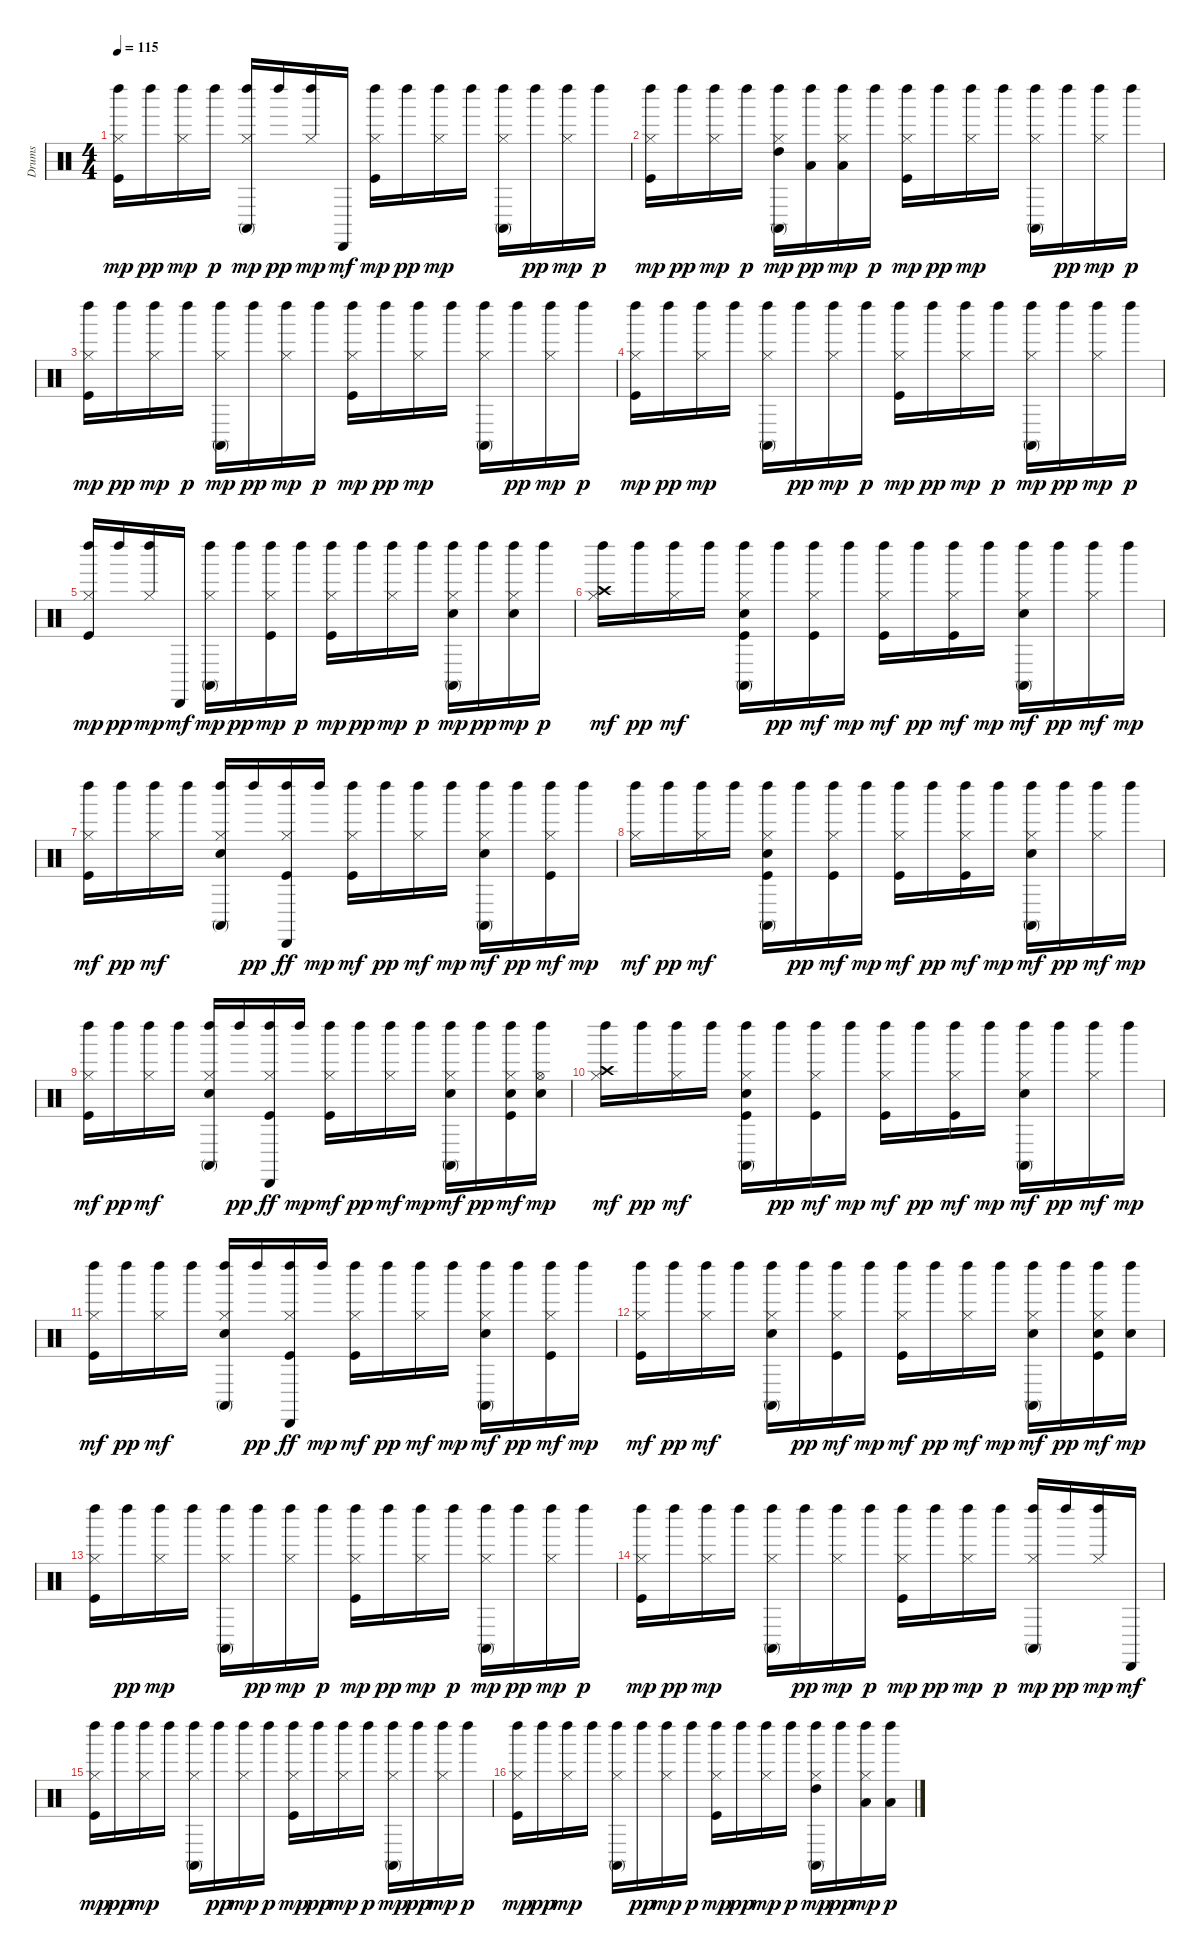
\track ("Drums" "Drums") {instrument percussion}
\staff {score}
\articulation defaults
\ts (4 4)
\tempo 115
\clef neutral
\ks c
("Kick (hit)" "Hi-Hat (closed)" "Left Maraca (hit)").16{dy mp} "Left Maraca (hit)".16{dy pp} ("Hi-Hat (closed)" "Left Maraca (hit)").16{dy mp} "Left Maraca (hit)".16{dy p} ("Hi-Hat (closed)" "Conga high (mute)" "Left Maraca (hit)").16{dy mp} "Left Maraca (hit)".16{dy pp} ("Hi-Hat (closed)" "Left Maraca (hit)").16{dy mp} "Cabasa (hit)".16{dy mf} ("Kick (hit)" "Hi-Hat (closed)" "Left Maraca (hit)").16{dy mp} "Left Maraca (hit)".16{dy pp} ("Hi-Hat (closed)" "Left Maraca (hit)").16{dy mp} "Left Maraca (hit)".16 ("Hi-Hat (closed)" "Conga high (mute)" "Left Maraca (hit)").16 "Left Maraca (hit)".16{dy pp} ("Hi-Hat (closed)" "Left Maraca (hit)").16{dy mp} "Left Maraca (hit)".16{dy p} |
("Kick (hit)" "Hi-Hat (closed)" "Left Maraca (hit)").16{dy mp} "Left Maraca (hit)".16{dy pp} ("Hi-Hat (closed)" "Left Maraca (hit)").16{dy mp} "Left Maraca (hit)".16{dy p} ("Hi-Hat (closed)" "High Tom (hit)" "Conga high (mute)" "Left Maraca (hit)").16{dy mp} ("Low Tom (hit)" "Left Maraca (hit)").16{dy pp} ("Hi-Hat (closed)" "Low Floor Tom (hit)" "Left Maraca (hit)").16{dy mp} "Left Maraca (hit)".16{dy p} ("Kick (hit)" "Hi-Hat (closed)" "Left Maraca (hit)").16{dy mp} "Left Maraca (hit)".16{dy pp} ("Hi-Hat (closed)" "Left Maraca (hit)").16{dy mp} "Left Maraca (hit)".16 ("Hi-Hat (closed)" "Conga high (mute)" "Left Maraca (hit)").16 "Left Maraca (hit)".16{dy pp} ("Hi-Hat (closed)" "Left Maraca (hit)").16{dy mp} "Left Maraca (hit)".16{dy p} |
("Kick (hit)" "Hi-Hat (closed)" "Left Maraca (hit)").16{dy mp} "Left Maraca (hit)".16{dy pp} ("Hi-Hat (closed)" "Left Maraca (hit)").16{dy mp} "Left Maraca (hit)".16{dy p} ("Hi-Hat (closed)" "Conga high (mute)" "Left Maraca (hit)").16{dy mp} "Left Maraca (hit)".16{dy pp} ("Hi-Hat (closed)" "Left Maraca (hit)").16{dy mp} "Left Maraca (hit)".16{dy p} ("Kick (hit)" "Hi-Hat (closed)" "Left Maraca (hit)").16{dy mp} "Left Maraca (hit)".16{dy pp} ("Hi-Hat (closed)" "Left Maraca (hit)").16{dy mp} "Left Maraca (hit)".16 ("Hi-Hat (closed)" "Conga high (mute)" "Left Maraca (hit)").16 "Left Maraca (hit)".16{dy pp} ("Hi-Hat (closed)" "Left Maraca (hit)").16{dy mp} "Left Maraca (hit)".16{dy p} |
("Kick (hit)" "Hi-Hat (closed)" "Left Maraca (hit)").16{dy mp} "Left Maraca (hit)".16{dy pp} ("Hi-Hat (closed)" "Left Maraca (hit)").16{dy mp} "Left Maraca (hit)".16 ("Hi-Hat (closed)" "Conga high (mute)" "Left Maraca (hit)").16 "Left Maraca (hit)".16{dy pp} ("Hi-Hat (closed)" "Left Maraca (hit)").16{dy mp} "Left Maraca (hit)".16{dy p} ("Kick (hit)" "Hi-Hat (closed)" "Left Maraca (hit)").16{dy mp} "Left Maraca (hit)".16{dy pp} ("Hi-Hat (closed)" "Left Maraca (hit)").16{dy mp} "Left Maraca (hit)".16{dy p} ("Hi-Hat (closed)" "Conga high (mute)" "Left Maraca (hit)").16{dy mp} "Left Maraca (hit)".16{dy pp} ("Hi-Hat (closed)" "Left Maraca (hit)").16{dy mp} "Left Maraca (hit)".16{dy p} |
("Kick (hit)" "Hi-Hat (closed)" "Left Maraca (hit)").16{dy mp} "Left Maraca (hit)".16{dy pp} ("Hi-Hat (closed)" "Left Maraca (hit)").16{dy mp} "Cabasa (hit)".16{dy mf} ("Hi-Hat (closed)" "Conga high (mute)" "Left Maraca (hit)").16{dy mp} "Left Maraca (hit)".16{dy pp} ("Kick (hit)" "Hi-Hat (closed)" "Left Maraca (hit)").16{dy mp} "Left Maraca (hit)".16{dy p} ("Kick (hit)" "Hi-Hat (closed)" "Left Maraca (hit)").16{dy mp} "Left Maraca (hit)".16{dy pp} ("Hi-Hat (closed)" "Left Maraca (hit)").16{dy mp} "Left Maraca (hit)".16{dy p} ("Snare (hit) 2" "Hi-Hat (closed)" "Conga high (mute)" "Left Maraca (hit)").16{dy mp} "Left Maraca (hit)".16{dy pp} ("Snare (hit) 2" "Hi-Hat (closed)" "Left Maraca (hit)").16{dy mp} "Left Maraca (hit)".16{dy p} |
("Hi-Hat (closed)" "Crash high (hit)" "Left Maraca (hit)").16{dy mf} "Left Maraca (hit)".16{dy pp} ("Hi-Hat (closed)" "Left Maraca (hit)").16{dy mf} "Left Maraca (hit)".16 ("Kick (hit)" "Snare (hit) 2" "Hi-Hat (closed)" "Conga high (mute)" "Left Maraca (hit)").16 "Left Maraca (hit)".16{dy pp} ("Kick (hit)" "Hi-Hat (closed)" "Left Maraca (hit)").16{dy mf} "Left Maraca (hit)".16{dy mp} ("Kick (hit)" "Hi-Hat (closed)" "Left Maraca (hit)").16{dy mf} "Left Maraca (hit)".16{dy pp} ("Kick (hit)" "Hi-Hat (closed)" "Left Maraca (hit)").16{dy mf} "Left Maraca (hit)".16{dy mp} ("Snare (hit) 2" "Hi-Hat (closed)" "Conga high (mute)" "Left Maraca (hit)").16{dy mf} "Left Maraca (hit)".16{dy pp} ("Hi-Hat (closed)" "Left Maraca (hit)").16{dy mf} "Left Maraca (hit)".16{dy mp} |
("Kick (hit)" "Hi-Hat (closed)" "Left Maraca (hit)").16{dy mf} "Left Maraca (hit)".16{dy pp} ("Hi-Hat (closed)" "Left Maraca (hit)").16{dy mf} "Left Maraca (hit)".16 ("Snare (hit) 2" "Hi-Hat (closed)" "Conga high (mute)" "Left Maraca (hit)").16 "Left Maraca (hit)".16{dy pp} ("Kick (hit)" "Hi-Hat (closed)" "Left Maraca (hit)" "Cabasa (hit)").16{dy ff} "Left Maraca (hit)".16{dy mp} ("Kick (hit)" "Hi-Hat (closed)" "Left Maraca (hit)").16{dy mf} "Left Maraca (hit)".16{dy pp} ("Hi-Hat (closed)" "Left Maraca (hit)").16{dy mf} "Left Maraca (hit)".16{dy mp} ("Snare (hit) 2" "Hi-Hat (closed)" "Conga high (mute)" "Left Maraca (hit)").16{dy mf} "Left Maraca (hit)".16{dy pp} ("Kick (hit)" "Hi-Hat (closed)" "Left Maraca (hit)").16{dy mf} "Left Maraca (hit)".16{dy mp} |
("Hi-Hat (closed)" "Left Maraca (hit)").16{dy mf} "Left Maraca (hit)".16{dy pp} ("Hi-Hat (closed)" "Left Maraca (hit)").16{dy mf} "Left Maraca (hit)".16 ("Kick (hit)" "Snare (hit) 2" "Hi-Hat (closed)" "Conga high (mute)" "Left Maraca (hit)").16 "Left Maraca (hit)".16{dy pp} ("Kick (hit)" "Hi-Hat (closed)" "Left Maraca (hit)").16{dy mf} "Left Maraca (hit)".16{dy mp} ("Kick (hit)" "Hi-Hat (closed)" "Left Maraca (hit)").16{dy mf} "Left Maraca (hit)".16{dy pp} ("Kick (hit)" "Hi-Hat (closed)" "Left Maraca (hit)").16{dy mf} "Left Maraca (hit)".16{dy mp} ("Snare (hit) 2" "Hi-Hat (closed)" "Conga high (mute)" "Left Maraca (hit)").16{dy mf} "Left Maraca (hit)".16{dy pp} ("Hi-Hat (closed)" "Left Maraca (hit)").16{dy mf} "Left Maraca (hit)".16{dy mp} |
("Kick (hit)" "Hi-Hat (closed)" "Left Maraca (hit)").16{dy mf} "Left Maraca (hit)".16{dy pp} ("Hi-Hat (closed)" "Left Maraca (hit)").16{dy mf} "Left Maraca (hit)".16 ("Snare (hit) 2" "Hi-Hat (closed)" "Conga high (mute)" "Left Maraca (hit)").16 "Left Maraca (hit)".16{dy pp} ("Kick (hit)" "Hi-Hat (closed)" "Left Maraca (hit)" "Cabasa (hit)").16{dy ff} "Left Maraca (hit)".16{dy mp} ("Kick (hit)" "Hi-Hat (closed)" "Left Maraca (hit)").16{dy mf} "Left Maraca (hit)".16{dy pp} ("Hi-Hat (closed)" "Left Maraca (hit)").16{dy mf} "Left Maraca (hit)".16{dy mp} ("Snare (hit) 2" "Hi-Hat (closed)" "Conga high (mute)" "Left Maraca (hit)").16{dy mf} "Left Maraca (hit)".16{dy pp} ("Kick (hit)" "Snare (hit) 2" "Hi-Hat (closed)" "Left Maraca (hit)").16{dy mf} ("Snare (hit) 2" "Hi-Hat (open)" "Left Maraca (hit)").16{dy mp} |
("Hi-Hat (closed)" "Crash high (hit)" "Left Maraca (hit)").16{dy mf} "Left Maraca (hit)".16{dy pp} ("Hi-Hat (closed)" "Left Maraca (hit)").16{dy mf} "Left Maraca (hit)".16 ("Kick (hit)" "Snare (hit) 2" "Hi-Hat (closed)" "Conga high (mute)" "Left Maraca (hit)").16 "Left Maraca (hit)".16{dy pp} ("Kick (hit)" "Hi-Hat (closed)" "Left Maraca (hit)").16{dy mf} "Left Maraca (hit)".16{dy mp} ("Kick (hit)" "Hi-Hat (closed)" "Left Maraca (hit)").16{dy mf} "Left Maraca (hit)".16{dy pp} ("Kick (hit)" "Hi-Hat (closed)" "Left Maraca (hit)").16{dy mf} "Left Maraca (hit)".16{dy mp} ("Snare (hit) 2" "Hi-Hat (closed)" "Conga high (mute)" "Left Maraca (hit)").16{dy mf} "Left Maraca (hit)".16{dy pp} ("Hi-Hat (closed)" "Left Maraca (hit)").16{dy mf} "Left Maraca (hit)".16{dy mp} |
("Kick (hit)" "Hi-Hat (closed)" "Left Maraca (hit)").16{dy mf} "Left Maraca (hit)".16{dy pp} ("Hi-Hat (closed)" "Left Maraca (hit)").16{dy mf} "Left Maraca (hit)".16 ("Snare (hit) 2" "Hi-Hat (closed)" "Conga high (mute)" "Left Maraca (hit)").16 "Left Maraca (hit)".16{dy pp} ("Kick (hit)" "Hi-Hat (closed)" "Left Maraca (hit)" "Cabasa (hit)").16{dy ff} "Left Maraca (hit)".16{dy mp} ("Kick (hit)" "Hi-Hat (closed)" "Left Maraca (hit)").16{dy mf} "Left Maraca (hit)".16{dy pp} ("Hi-Hat (closed)" "Left Maraca (hit)").16{dy mf} "Left Maraca (hit)".16{dy mp} ("Snare (hit) 2" "Hi-Hat (closed)" "Conga high (mute)" "Left Maraca (hit)").16{dy mf} "Left Maraca (hit)".16{dy pp} ("Kick (hit)" "Hi-Hat (closed)" "Left Maraca (hit)").16{dy mf} "Left Maraca (hit)".16{dy mp} |
("Kick (hit)" "Hi-Hat (closed)" "Left Maraca (hit)").16{dy mf} "Left Maraca (hit)".16{dy pp} ("Hi-Hat (closed)" "Left Maraca (hit)").16{dy mf} "Left Maraca (hit)".16 ("Snare (hit) 2" "Hi-Hat (closed)" "Conga high (mute)" "Left Maraca (hit)").16 "Left Maraca (hit)".16{dy pp} ("Kick (hit)" "Hi-Hat (closed)" "Left Maraca (hit)").16{dy mf} "Left Maraca (hit)".16{dy mp} ("Kick (hit)" "Hi-Hat (closed)" "Left Maraca (hit)").16{dy mf} "Left Maraca (hit)".16{dy pp} ("Hi-Hat (closed)" "Left Maraca (hit)").16{dy mf} "Left Maraca (hit)".16{dy mp} ("Snare (hit) 2" "Hi-Hat (closed)" "Conga high (mute)" "Left Maraca (hit)").16{dy mf} "Left Maraca (hit)".16{dy pp} ("Kick (hit)" "Snare (hit) 2" "Hi-Hat (closed)" "Left Maraca (hit)").16{dy mf} ("Snare (hit) 2" "Left Maraca (hit)").16{dy mp} |
("Kick (hit)" "Hi-Hat (closed)" "Left Maraca (hit)").16 "Left Maraca (hit)".16{dy pp} ("Hi-Hat (closed)" "Left Maraca (hit)").16{dy mp} "Left Maraca (hit)".16 ("Hi-Hat (closed)" "Conga high (mute)" "Left Maraca (hit)").16 "Left Maraca (hit)".16{dy pp} ("Hi-Hat (closed)" "Left Maraca (hit)").16{dy mp} "Left Maraca (hit)".16{dy p} ("Kick (hit)" "Hi-Hat (closed)" "Left Maraca (hit)").16{dy mp} "Left Maraca (hit)".16{dy pp} ("Hi-Hat (closed)" "Left Maraca (hit)").16{dy mp} "Left Maraca (hit)".16{dy p} ("Hi-Hat (closed)" "Conga high (mute)" "Left Maraca (hit)").16{dy mp} "Left Maraca (hit)".16{dy pp} ("Hi-Hat (closed)" "Left Maraca (hit)").16{dy mp} "Left Maraca (hit)".16{dy p} |
("Kick (hit)" "Hi-Hat (closed)" "Left Maraca (hit)").16{dy mp} "Left Maraca (hit)".16{dy pp} ("Hi-Hat (closed)" "Left Maraca (hit)").16{dy mp} "Left Maraca (hit)".16 ("Hi-Hat (closed)" "Conga high (mute)" "Left Maraca (hit)").16 "Left Maraca (hit)".16{dy pp} ("Hi-Hat (closed)" "Left Maraca (hit)").16{dy mp} "Left Maraca (hit)".16{dy p} ("Kick (hit)" "Hi-Hat (closed)" "Left Maraca (hit)").16{dy mp} "Left Maraca (hit)".16{dy pp} ("Hi-Hat (closed)" "Left Maraca (hit)").16{dy mp} "Left Maraca (hit)".16{dy p} ("Hi-Hat (closed)" "Conga high (mute)" "Left Maraca (hit)").16{dy mp} "Left Maraca (hit)".16{dy pp} ("Hi-Hat (closed)" "Left Maraca (hit)").16{dy mp} "Cabasa (hit)".16{dy mf} |
("Kick (hit)" "Hi-Hat (closed)" "Left Maraca (hit)").16{dy mp} "Left Maraca (hit)".16{dy pp} ("Hi-Hat (closed)" "Left Maraca (hit)").16{dy mp} "Left Maraca (hit)".16 ("Hi-Hat (closed)" "Conga high (mute)" "Left Maraca (hit)").16 "Left Maraca (hit)".16{dy pp} ("Hi-Hat (closed)" "Left Maraca (hit)").16{dy mp} "Left Maraca (hit)".16{dy p} ("Kick (hit)" "Hi-Hat (closed)" "Left Maraca (hit)").16{dy mp} "Left Maraca (hit)".16{dy pp} ("Hi-Hat (closed)" "Left Maraca (hit)").16{dy mp} "Left Maraca (hit)".16{dy p} ("Hi-Hat (closed)" "Conga high (mute)" "Left Maraca (hit)").16{dy mp} "Left Maraca (hit)".16{dy pp} ("Hi-Hat (closed)" "Left Maraca (hit)").16{dy mp} "Left Maraca (hit)".16{dy p} |
("Kick (hit)" "Hi-Hat (closed)" "Left Maraca (hit)").16{dy mp} "Left Maraca (hit)".16{dy pp} ("Hi-Hat (closed)" "Left Maraca (hit)").16{dy mp} "Left Maraca (hit)".16 ("Hi-Hat (closed)" "Conga high (mute)" "Left Maraca (hit)").16 "Left Maraca (hit)".16{dy pp} ("Hi-Hat (closed)" "Left Maraca (hit)").16{dy mp} "Left Maraca (hit)".16{dy p} ("Kick (hit)" "Hi-Hat (closed)" "Left Maraca (hit)").16{dy mp} "Left Maraca (hit)".16{dy pp} ("Hi-Hat (closed)" "Left Maraca (hit)").16{dy mp} "Left Maraca (hit)".16{dy p} ("Hi-Hat (closed)" "High Tom (hit)" "Conga high (mute)" "Left Maraca (hit)").16{dy mp} "Left Maraca (hit)".16{dy pp} ("Hi-Hat (closed)" "Low Floor Tom (hit)" "Left Maraca (hit)").16{dy mp} ("Low Tom (hit)" "Left Maraca (hit)").16{dy p}
